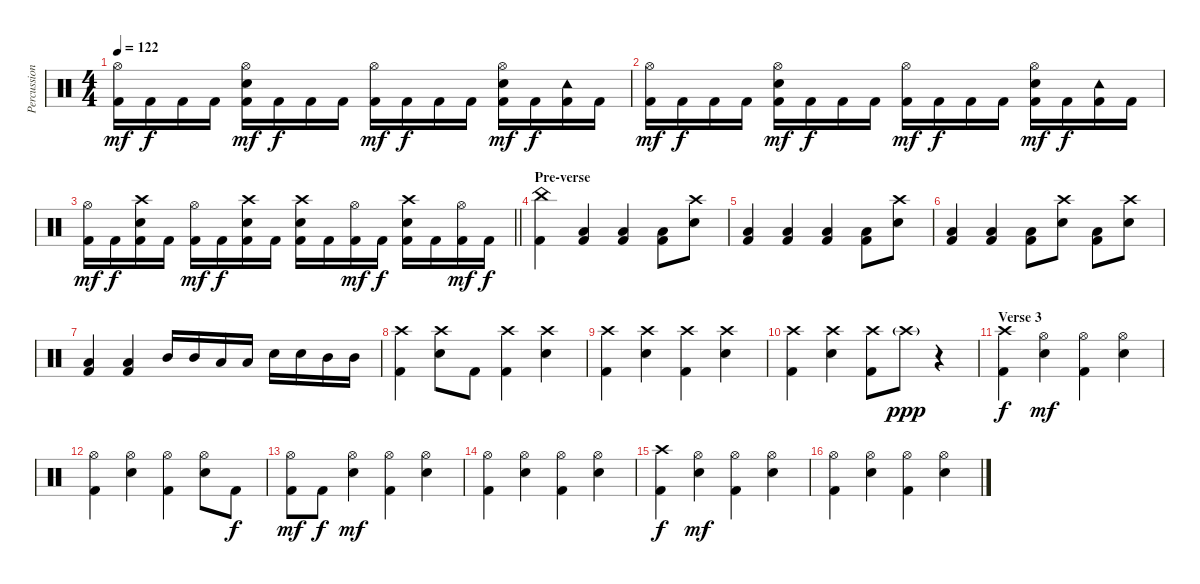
\track ("Percussion" "Percussion") {instrument percussion}
\staff {score}
\articulation defaults
\ts (4 4)
\tempo 122
\clef neutral
\ks c
("Hi-Hat (open)" "Kick (hit) 2").16{dy mf} "Kick (hit) 2".16{dy f} "Kick (hit) 2".16 "Kick (hit) 2".16 ("Hi-Hat (open)" "Electric Snare (hit)" "Kick (hit) 2").16{dy mf} "Kick (hit) 2".16{dy f} "Kick (hit) 2".16 "Kick (hit) 2".16 ("Hi-Hat (open)" "Kick (hit) 2").16{dy mf} "Kick (hit) 2".16{dy f} "Kick (hit) 2".16 "Kick (hit) 2".16 ("Hi-Hat (open)" "Electric Snare (hit)" "Kick (hit) 2").16{dy mf} "Kick (hit) 2".16{dy f} ("Tambourine (hit)" "Kick (hit) 2").16 "Kick (hit) 2".16 |
("Hi-Hat (open)" "Kick (hit) 2").16{dy mf} "Kick (hit) 2".16{dy f} "Kick (hit) 2".16 "Kick (hit) 2".16 ("Hi-Hat (open)" "Electric Snare (hit)" "Kick (hit) 2").16{dy mf} "Kick (hit) 2".16{dy f} "Kick (hit) 2".16 "Kick (hit) 2".16 ("Hi-Hat (open)" "Kick (hit) 2").16{dy mf} "Kick (hit) 2".16{dy f} "Kick (hit) 2".16 "Kick (hit) 2".16 ("Hi-Hat (open)" "Electric Snare (hit)" "Kick (hit) 2").16{dy mf} "Kick (hit) 2".16{dy f} ("Tambourine (hit)" "Kick (hit) 2").16 "Kick (hit) 2".16 |
\barLineRight lightlight
("Hi-Hat (open)" "Kick (hit) 2").16{dy mf} "Kick (hit) 2".16{dy f} ("Crash high (hit)" "Electric Snare (hit)" "Kick (hit) 2").16 "Kick (hit) 2".16 ("Hi-Hat (open)" "Kick (hit) 2").16{dy mf} "Kick (hit) 2".16{dy f} ("Crash high (hit)" "Electric Snare (hit)" "Kick (hit) 2").16 "Kick (hit) 2".16 ("Crash high (hit)" "Electric Snare (hit)" "Kick (hit) 2").16 "Kick (hit) 2".16 ("Hi-Hat (open)" "Kick (hit) 2").16{dy mf} "Kick (hit) 2".16{dy f} ("Crash high (hit)" "Electric Snare (hit)" "Kick (hit) 2").16 "Kick (hit) 2".16 ("Hi-Hat (open)" "Kick (hit) 2").16{dy mf} "Kick (hit) 2".16{dy f} |
\section ("" "Pre-verse")
("China (hit)" "Kick (hit) 2").4 ("Low Tom (hit)" "Kick (hit) 2").4 ("Low Tom (hit)" "Kick (hit) 2").4 ("Low Tom (hit)" "Kick (hit) 2").8 ("Crash high (hit)" "Electric Snare (hit)").8 |
("Low Tom (hit)" "Kick (hit) 2").4 ("Low Tom (hit)" "Kick (hit) 2").4 ("Low Tom (hit)" "Kick (hit) 2").4 ("Low Tom (hit)" "Kick (hit) 2").8 ("Crash high (hit)" "Electric Snare (hit)").8 |
("Low Tom (hit)" "Kick (hit) 2").4 ("Low Tom (hit)" "Kick (hit) 2").4 ("Low Tom (hit)" "Kick (hit) 2").8 ("Crash high (hit)" "Electric Snare (hit)").8 ("Low Tom (hit)" "Kick (hit) 2").8 ("Crash high (hit)" "Electric Snare (hit)").8 |
("Low Tom (hit)" "Kick (hit) 2").4 ("Low Tom (hit)" "Kick (hit) 2").4 "Mid Tom (hit)".16 "Mid Tom (hit)".16 "Low Tom (hit)".16 "Low Tom (hit)".16 "Electric Snare (hit)".16 "Electric Snare (hit)".16 "Mid Tom (hit)".16 "Mid Tom (hit)".16 |
("Crash high (hit)" "Kick (hit) 2").4 ("Crash high (hit)" "Electric Snare (hit)").8 "Kick (hit) 2".8 ("Crash high (hit)" "Kick (hit) 2").4 ("Crash high (hit)" "Electric Snare (hit)").4 |
("Crash high (hit)" "Kick (hit) 2").4 ("Crash high (hit)" "Electric Snare (hit)").4 ("Crash high (hit)" "Kick (hit) 2").4 ("Crash high (hit)" "Electric Snare (hit)").4 |
("Crash high (hit)" "Kick (hit) 2").4 ("Crash high (hit)" "Electric Snare (hit)").4 ("Crash high (hit)" "Kick (hit) 2").8 "Crash high (hit)"{g}.8{dy ppp} r.4 |
\section ("" "Verse 3")
("Crash high (hit)" "Kick (hit) 2").4{dy f} ("Hi-Hat (open)" "Electric Snare (hit)").4{dy mf} ("Hi-Hat (open)" "Kick (hit) 2").4 ("Hi-Hat (open)" "Electric Snare (hit)").4 |
("Hi-Hat (open)" "Kick (hit) 2").4 ("Hi-Hat (open)" "Electric Snare (hit)").4 ("Hi-Hat (open)" "Kick (hit) 2").4 ("Hi-Hat (open)" "Electric Snare (hit)").8 "Kick (hit) 2".8{dy f} |
("Hi-Hat (open)" "Kick (hit) 2").8{dy mf} "Kick (hit) 2".8{dy f} ("Hi-Hat (open)" "Electric Snare (hit)").4{dy mf} ("Hi-Hat (open)" "Kick (hit) 2").4 ("Hi-Hat (open)" "Electric Snare (hit)").4 |
("Hi-Hat (open)" "Kick (hit) 2").4 ("Hi-Hat (open)" "Electric Snare (hit)").4 ("Hi-Hat (open)" "Kick (hit) 2").4 ("Hi-Hat (open)" "Electric Snare (hit)").4 |
("Crash high (hit)" "Kick (hit) 2").4{dy f} ("Hi-Hat (open)" "Electric Snare (hit)").4{dy mf} ("Hi-Hat (open)" "Kick (hit) 2").4 ("Hi-Hat (open)" "Electric Snare (hit)").4 |
("Hi-Hat (open)" "Kick (hit) 2").4 ("Hi-Hat (open)" "Electric Snare (hit)").4 ("Hi-Hat (open)" "Kick (hit) 2").4 ("Hi-Hat (open)" "Electric Snare (hit)").4
